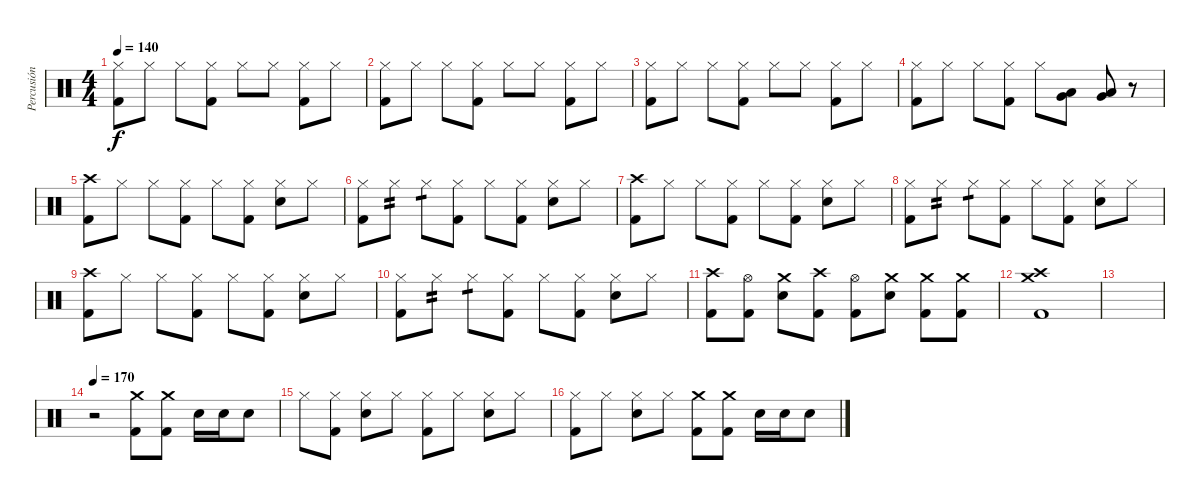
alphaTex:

\track ("Percusión" "Percusión") {instrument percussion}
\staff {score}
\articulation defaults
\ts (4 4)
\tempo 140
\clef neutral
\ks c
("Hi-Hat (closed)" "Kick (hit) 2").8{dy f} "Hi-Hat (closed)".8 "Hi-Hat (closed)".8 ("Hi-Hat (closed)" "Kick (hit) 2").8 "Hi-Hat (closed)".8 "Hi-Hat (closed)".8 ("Hi-Hat (closed)" "Kick (hit) 2").8 "Hi-Hat (closed)".8 |
("Hi-Hat (closed)" "Kick (hit) 2").8 "Hi-Hat (closed)".8 "Hi-Hat (closed)".8 ("Hi-Hat (closed)" "Kick (hit) 2").8 "Hi-Hat (closed)".8 "Hi-Hat (closed)".8 ("Hi-Hat (closed)" "Kick (hit) 2").8 "Hi-Hat (closed)".8 |
("Hi-Hat (closed)" "Kick (hit) 2").8 "Hi-Hat (closed)".8 "Hi-Hat (closed)".8 ("Hi-Hat (closed)" "Kick (hit) 2").8 "Hi-Hat (closed)".8 "Hi-Hat (closed)".8 ("Hi-Hat (closed)" "Kick (hit) 2").8 "Hi-Hat (closed)".8 |
("Hi-Hat (closed)" "Kick (hit) 2").8 "Hi-Hat (closed)".8 "Hi-Hat (closed)".8 ("Hi-Hat (closed)" "Kick (hit) 2").8 "Hi-Hat (closed)".8 ("Very Low Tom (hit)" "Low Tom (hit)").8 ("Very Low Tom (hit)" "Low Tom (hit)").8 r.8 |
("Crash high (hit)" "Kick (hit) 2").8 "Hi-Hat (closed)".8 "Hi-Hat (closed)".8 ("Hi-Hat (closed)" "Kick (hit) 2").8 "Hi-Hat (closed)".8 ("Hi-Hat (closed)" "Kick (hit) 2").8 ("Hi-Hat (closed)" "Electric Snare (hit)").8 "Hi-Hat (closed)".8 |
("Hi-Hat (closed)" "Kick (hit) 2").8 "Hi-Hat (closed)".8{tp 2} "Hi-Hat (closed)".8{tp 1} ("Hi-Hat (closed)" "Kick (hit) 2").8 "Hi-Hat (closed)".8 ("Hi-Hat (closed)" "Kick (hit) 2").8 ("Hi-Hat (closed)" "Electric Snare (hit)").8 "Hi-Hat (closed)".8 |
("Crash high (hit)" "Kick (hit) 2").8 "Hi-Hat (closed)".8 "Hi-Hat (closed)".8 ("Hi-Hat (closed)" "Kick (hit) 2").8 "Hi-Hat (closed)".8 ("Hi-Hat (closed)" "Kick (hit) 2").8 ("Hi-Hat (closed)" "Electric Snare (hit)").8 "Hi-Hat (closed)".8 |
("Hi-Hat (closed)" "Kick (hit) 2").8 "Hi-Hat (closed)".8{tp 2} "Hi-Hat (closed)".8{tp 1} ("Hi-Hat (closed)" "Kick (hit) 2").8 "Hi-Hat (closed)".8 ("Hi-Hat (closed)" "Kick (hit) 2").8 ("Hi-Hat (closed)" "Electric Snare (hit)").8 "Hi-Hat (closed)".8 |
("Crash high (hit)" "Kick (hit) 2").8 "Hi-Hat (closed)".8 "Hi-Hat (closed)".8 ("Hi-Hat (closed)" "Kick (hit) 2").8 "Hi-Hat (closed)".8 ("Hi-Hat (closed)" "Kick (hit) 2").8 ("Hi-Hat (closed)" "Electric Snare (hit)").8 "Hi-Hat (closed)".8 |
("Hi-Hat (closed)" "Kick (hit) 2").8 "Hi-Hat (closed)".8{tp 2} "Hi-Hat (closed)".8{tp 1} ("Hi-Hat (closed)" "Kick (hit) 2").8 "Hi-Hat (closed)".8 ("Hi-Hat (closed)" "Kick (hit) 2").8 ("Hi-Hat (closed)" "Electric Snare (hit)").8 "Hi-Hat (closed)".8 |
("Crash high (hit)" "Kick (hit) 2").8 ("Hi-Hat (open)" "Kick (hit) 2").8 ("Crash medium (hit)" "Electric Snare (hit)").8 ("Crash high (hit)" "Kick (hit) 2").8 ("Hi-Hat (open)" "Kick (hit) 2").8 ("Crash medium (hit)" "Electric Snare (hit)").8 ("Crash medium (hit)" "Kick (hit) 2").8 ("Crash medium (hit)" "Kick (hit) 2").8 |
("Crash high (hit)" "Crash medium (hit)" "Kick (hit) 2").1 |
|
\tempo 170
r.2 ("Crash medium (hit)" "Kick (hit) 2").8 ("Crash medium (hit)" "Kick (hit) 2").8 "Electric Snare (hit)".16 "Electric Snare (hit)".16 "Electric Snare (hit)".8 |
"Hi-Hat (closed)".8 ("Hi-Hat (closed)" "Kick (hit) 2").8 ("Hi-Hat (closed)" "Electric Snare (hit)").8 "Hi-Hat (closed)".8 ("Hi-Hat (closed)" "Kick (hit) 2").8 "Hi-Hat (closed)".8 ("Hi-Hat (closed)" "Electric Snare (hit)").8 "Hi-Hat (closed)".8 |
("Hi-Hat (closed)" "Kick (hit) 2").8 "Hi-Hat (closed)".8 ("Hi-Hat (closed)" "Electric Snare (hit)").8 "Hi-Hat (closed)".8 ("Crash medium (hit)" "Kick (hit) 2").8 ("Crash medium (hit)" "Kick (hit) 2").8 "Electric Snare (hit)".16 "Electric Snare (hit)".16 "Electric Snare (hit)".8
